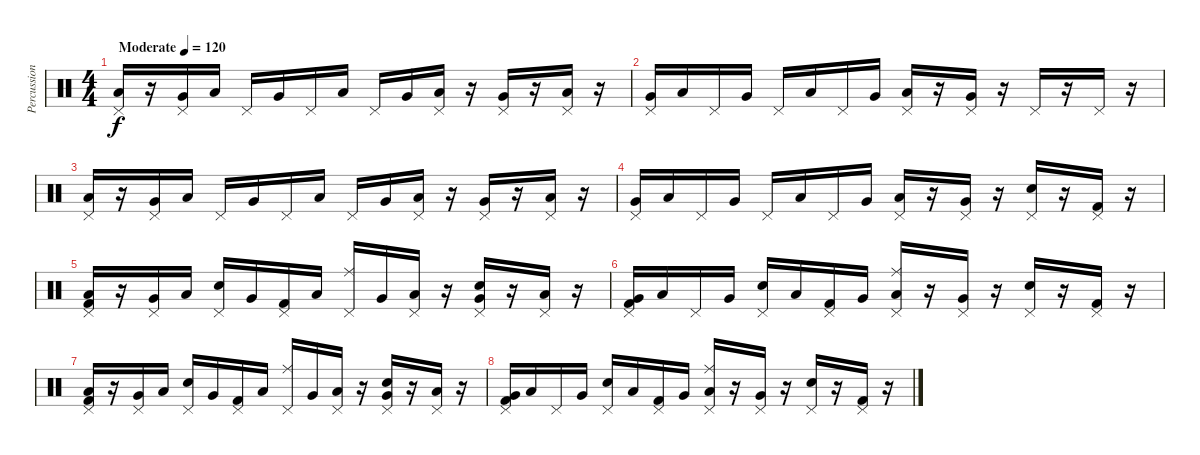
\track ("Percussion" "Percussion") {instrument percussion}
\staff {score}
\articulation defaults
\ts (4 4)
\tempo (120 "Moderate")
\clef neutral
\ks c
("Low Tom (hit)" "Pedal Hi-Hat (hit)").16{dy f} r.16 ("Very Low Tom (hit)" "Pedal Hi-Hat (hit)").16 "Low Tom (hit)".16 "Pedal Hi-Hat (hit)".16 "Very Low Tom (hit)".16 "Pedal Hi-Hat (hit)".16 "Low Tom (hit)".16 "Pedal Hi-Hat (hit)".16 "Very Low Tom (hit)".16 ("Low Tom (hit)" "Pedal Hi-Hat (hit)").16 r.16 ("Very Low Tom (hit)" "Pedal Hi-Hat (hit)").16 r.16 ("Low Tom (hit)" "Pedal Hi-Hat (hit)").16 r.16 |
("Very Low Tom (hit)" "Pedal Hi-Hat (hit)").16 "Low Tom (hit)".16 "Pedal Hi-Hat (hit)".16 "Very Low Tom (hit)".16 "Pedal Hi-Hat (hit)".16 "Low Tom (hit)".16 "Pedal Hi-Hat (hit)".16 "Very Low Tom (hit)".16 ("Low Tom (hit)" "Pedal Hi-Hat (hit)").16 r.16 ("Very Low Tom (hit)" "Pedal Hi-Hat (hit)").16 r.16 "Pedal Hi-Hat (hit)".16 r.16 "Pedal Hi-Hat (hit)".16 r.16 |
("Low Tom (hit)" "Pedal Hi-Hat (hit)").16 r.16 ("Very Low Tom (hit)" "Pedal Hi-Hat (hit)").16 "Low Tom (hit)".16 "Pedal Hi-Hat (hit)".16 "Very Low Tom (hit)".16 "Pedal Hi-Hat (hit)".16 "Low Tom (hit)".16 "Pedal Hi-Hat (hit)".16 "Very Low Tom (hit)".16 ("Low Tom (hit)" "Pedal Hi-Hat (hit)").16 r.16 ("Very Low Tom (hit)" "Pedal Hi-Hat (hit)").16 r.16 ("Low Tom (hit)" "Pedal Hi-Hat (hit)").16 r.16 |
("Very Low Tom (hit)" "Pedal Hi-Hat (hit)").16 "Low Tom (hit)".16 "Pedal Hi-Hat (hit)".16 "Very Low Tom (hit)".16 "Pedal Hi-Hat (hit)".16 "Low Tom (hit)".16 "Pedal Hi-Hat (hit)".16 "Very Low Tom (hit)".16 ("Low Tom (hit)" "Pedal Hi-Hat (hit)").16 r.16 ("Very Low Tom (hit)" "Pedal Hi-Hat (hit)").16 r.16 ("Electric Snare (hit)" "Pedal Hi-Hat (hit)").16 r.16 ("Pedal Hi-Hat (hit)" "Kick (hit) 2").16 r.16 |
("Low Tom (hit)" "Pedal Hi-Hat (hit)" "Kick (hit) 2").16 r.16 ("Very Low Tom (hit)" "Pedal Hi-Hat (hit)").16 "Low Tom (hit)".16 ("Electric Snare (hit)" "Pedal Hi-Hat (hit)").16 "Very Low Tom (hit)".16 ("Pedal Hi-Hat (hit)" "Kick (hit) 2").16 "Low Tom (hit)".16 ("Ride (middle)" "Pedal Hi-Hat (hit)").16 "Very Low Tom (hit)".16 ("Low Tom (hit)" "Pedal Hi-Hat (hit)").16 r.16 ("Electric Snare (hit)" "Very Low Tom (hit)" "Pedal Hi-Hat (hit)").16 r.16 ("Low Tom (hit)" "Pedal Hi-Hat (hit)").16 r.16 |
("Very Low Tom (hit)" "Pedal Hi-Hat (hit)" "Kick (hit) 2").16 "Low Tom (hit)".16 "Pedal Hi-Hat (hit)".16 "Very Low Tom (hit)".16 ("Electric Snare (hit)" "Pedal Hi-Hat (hit)").16 "Low Tom (hit)".16 ("Pedal Hi-Hat (hit)" "Kick (hit) 2").16 "Very Low Tom (hit)".16 ("Ride (middle)" "Low Tom (hit)" "Pedal Hi-Hat (hit)").16 r.16 ("Very Low Tom (hit)" "Pedal Hi-Hat (hit)").16 r.16 ("Electric Snare (hit)" "Pedal Hi-Hat (hit)").16 r.16 ("Pedal Hi-Hat (hit)" "Kick (hit) 2").16 r.16 |
("Low Tom (hit)" "Pedal Hi-Hat (hit)" "Kick (hit) 2").16 r.16 ("Very Low Tom (hit)" "Pedal Hi-Hat (hit)").16 "Low Tom (hit)".16 ("Electric Snare (hit)" "Pedal Hi-Hat (hit)").16 "Very Low Tom (hit)".16 ("Pedal Hi-Hat (hit)" "Kick (hit) 2").16 "Low Tom (hit)".16 ("Ride (middle)" "Pedal Hi-Hat (hit)").16 "Very Low Tom (hit)".16 ("Low Tom (hit)" "Pedal Hi-Hat (hit)").16 r.16 ("Electric Snare (hit)" "Very Low Tom (hit)" "Pedal Hi-Hat (hit)").16 r.16 ("Low Tom (hit)" "Pedal Hi-Hat (hit)").16 r.16 |
("Very Low Tom (hit)" "Pedal Hi-Hat (hit)" "Kick (hit) 2").16 "Low Tom (hit)".16 "Pedal Hi-Hat (hit)".16 "Very Low Tom (hit)".16 ("Electric Snare (hit)" "Pedal Hi-Hat (hit)").16 "Low Tom (hit)".16 ("Pedal Hi-Hat (hit)" "Kick (hit) 2").16 "Very Low Tom (hit)".16 ("Ride (middle)" "Low Tom (hit)" "Pedal Hi-Hat (hit)").16 r.16 ("Very Low Tom (hit)" "Pedal Hi-Hat (hit)").16 r.16 ("Electric Snare (hit)" "Pedal Hi-Hat (hit)").16 r.16 ("Pedal Hi-Hat (hit)" "Kick (hit) 2").16 r.16
